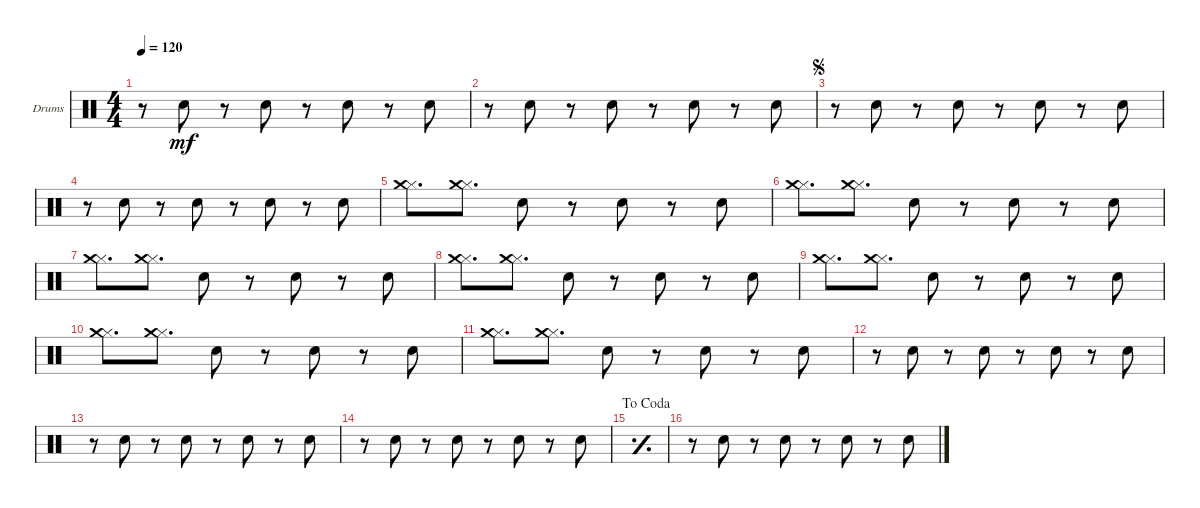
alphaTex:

\bracketExtendMode groupsimilarinstruments
\firstSystemTrackNameOrientation horizontal
\otherSystemsTrackNameOrientation horizontal
\track ("Drumkit" "Drums") {instrument percussion}
\staff {score}
\articulation defaults
\ts (4 4)
\tempo 120
\clef neutral
\scale
0.333333
\ks c
r.8{dy mf} "Snare (hit) 2".8 r.8 "Snare (hit) 2".8 r.8 "Snare (hit) 2".8 r.8 "Snare (hit) 2".8 |
\scale
0.333333 r.8 "Snare (hit) 2".8 r.8 "Snare (hit) 2".8 r.8 "Snare (hit) 2".8 r.8 "Snare (hit) 2".8 |
\jump segno
\scale
0.333333 r.8 "Snare (hit) 2".8 r.8 "Snare (hit) 2".8 r.8 "Snare (hit) 2".8 r.8 "Snare (hit) 2".8 |
\scale
0.333333 r.8 "Snare (hit) 2".8 r.8 "Snare (hit) 2".8 r.8 "Snare (hit) 2".8 r.8 "Snare (hit) 2".8 |
\scale
0.333333 ("Hi-Hat (closed)" "Crash medium (hit)").8{d} ("Hi-Hat (closed)" "Crash medium (hit)").8{d} "Snare (hit) 2".8 r.8 "Snare (hit) 2".8 r.8 "Snare (hit) 2".8 |
\scale
0.333333 ("Hi-Hat (closed)" "Crash medium (hit)").8{d} ("Hi-Hat (closed)" "Crash medium (hit)").8{d} "Snare (hit) 2".8 r.8 "Snare (hit) 2".8 r.8 "Snare (hit) 2".8 |
\scale
0.333333 ("Hi-Hat (closed)" "Crash medium (hit)").8{d} ("Hi-Hat (closed)" "Crash medium (hit)").8{d} "Snare (hit) 2".8 r.8 "Snare (hit) 2".8 r.8 "Snare (hit) 2".8 |
\scale
0.333333 ("Hi-Hat (closed)" "Crash medium (hit)").8{d} ("Hi-Hat (closed)" "Crash medium (hit)").8{d} "Snare (hit) 2".8 r.8 "Snare (hit) 2".8 r.8 "Snare (hit) 2".8 |
\scale
0.333333 ("Hi-Hat (closed)" "Crash medium (hit)").8{d} ("Hi-Hat (closed)" "Crash medium (hit)").8{d} "Snare (hit) 2".8 r.8 "Snare (hit) 2".8 r.8 "Snare (hit) 2".8 |
\scale
0.333333 ("Hi-Hat (closed)" "Crash medium (hit)").8{d} ("Hi-Hat (closed)" "Crash medium (hit)").8{d} "Snare (hit) 2".8 r.8 "Snare (hit) 2".8 r.8 "Snare (hit) 2".8 |
("Hi-Hat (closed)" "Crash medium (hit)").8{d} ("Hi-Hat (closed)" "Crash medium (hit)").8{d} "Snare (hit) 2".8 r.8 "Snare (hit) 2".8 r.8 "Snare (hit) 2".8 |
\scale
0.333333 r.8 "Snare (hit) 2".8 r.8 "Snare (hit) 2".8 r.8 "Snare (hit) 2".8 r.8 "Snare (hit) 2".8 |
\scale
0.333333 r.8 "Snare (hit) 2".8 r.8 "Snare (hit) 2".8 r.8 "Snare (hit) 2".8 r.8 "Snare (hit) 2".8 |
\scale
0.333333 r.8 "Snare (hit) 2".8 r.8 "Snare (hit) 2".8 r.8 "Snare (hit) 2".8 r.8 "Snare (hit) 2".8 |
\jump dacoda
\simile simple
\scale
0.333333 |
\simile none
\scale
0.333333 r.8 "Snare (hit) 2".8 r.8 "Snare (hit) 2".8 r.8 "Snare (hit) 2".8 r.8 "Snare (hit) 2".8
